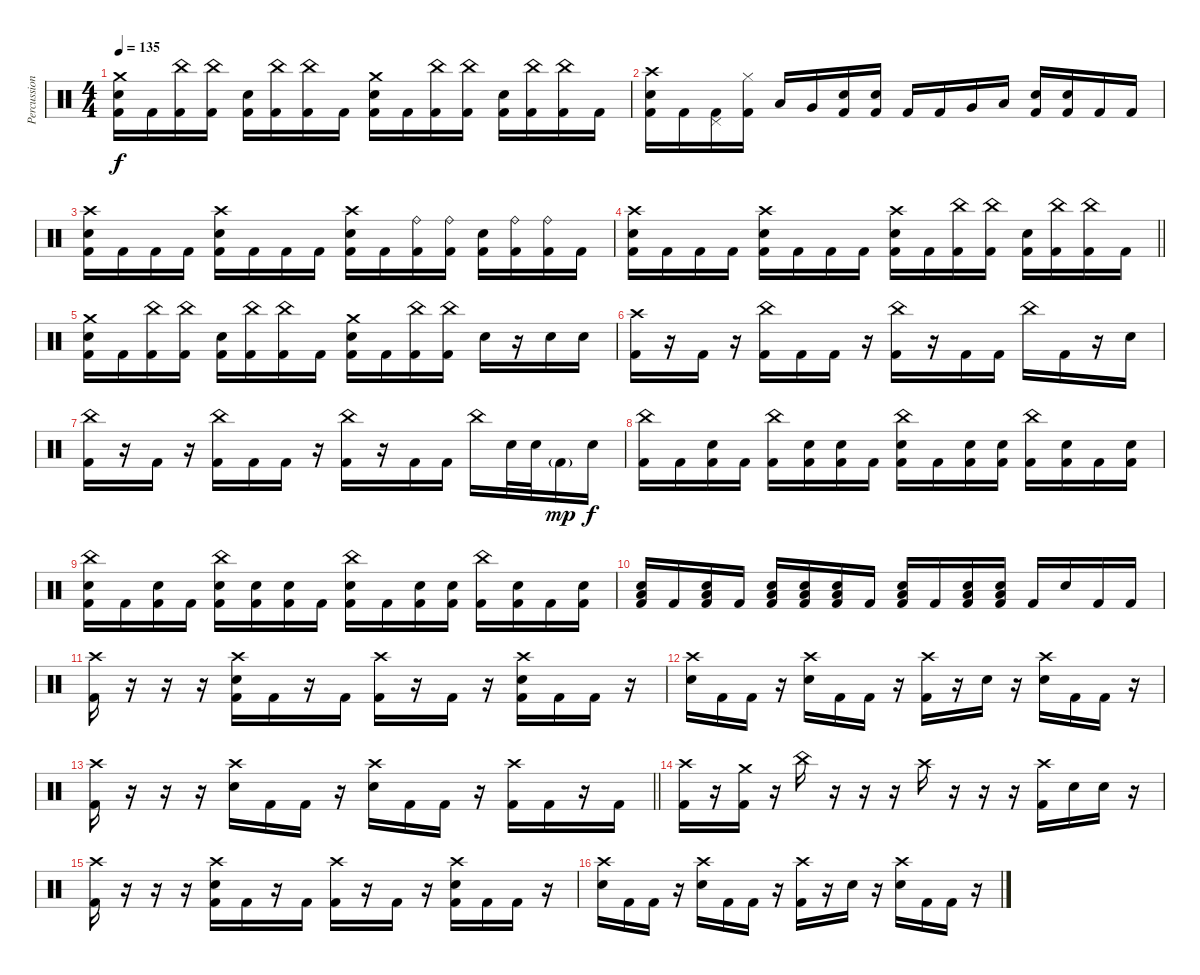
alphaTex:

\track ("Percussion" "Percussion") {instrument percussion}
\staff {score}
\articulation defaults
\ts (4 4)
\tempo 135
\clef neutral
\ks c
("Kick (hit) 2" "Electric Snare (hit)" "Crash medium (hit)").16{dy f} "Kick (hit) 2".16 ("Kick (hit) 2" "China (hit)").16 ("Kick (hit) 2" "China (hit)").16 ("Kick (hit) 2" "Electric Snare (hit)").16 ("Kick (hit) 2" "China (hit)").16 ("Kick (hit) 2" "China (hit)").16 "Kick (hit) 2".16 ("Kick (hit) 2" "Electric Snare (hit)" "Crash medium (hit)").16 "Kick (hit) 2".16 ("Kick (hit) 2" "China (hit)").16 ("Kick (hit) 2" "China (hit)").16 ("Kick (hit) 2" "Electric Snare (hit)").16 ("Kick (hit) 2" "China (hit)").16 ("Kick (hit) 2" "China (hit)").16 "Kick (hit) 2".16 |
("Kick (hit) 2" "Electric Snare (hit)" "Crash high (hit)").16 "Kick (hit) 2".16 ("Kick (hit) 2" "Pedal Hi-Hat (hit)").16 ("Kick (hit) 2" "Hi-Hat (closed)").16 "Low Tom (hit)".16 "Very Low Tom (hit)".16 ("Kick (hit) 2" "Electric Snare (hit)").16 ("Kick (hit) 2" "Electric Snare (hit)").16 "Kick (hit) 2".16 "Kick (hit) 2".16 "Very Low Tom (hit)".16 "Low Floor Tom (hit)".16 ("Kick (hit) 2" "Electric Snare (hit)").16 ("Kick (hit) 2" "Electric Snare (hit)").16 "Kick (hit) 2".16 "Kick (hit) 2".16 |
("Kick (hit) 2" "Electric Snare (hit)" "Crash high (hit)").16 "Kick (hit) 2".16 "Kick (hit) 2".16 "Kick (hit) 2".16 ("Kick (hit) 2" "Electric Snare (hit)" "Crash high (hit)").16 "Kick (hit) 2".16 "Kick (hit) 2".16 "Kick (hit) 2".16 ("Kick (hit) 2" "Electric Snare (hit)" "Crash high (hit)").16 "Kick (hit) 2".16 ("Kick (hit) 2" "Ride (bell)").16 ("Kick (hit) 2" "Ride (bell)").16 ("Kick (hit) 2" "Electric Snare (hit)").16 ("Kick (hit) 2" "Ride (bell)").16 ("Kick (hit) 2" "Ride (bell)").16 "Kick (hit) 2".16 |
\barLineRight lightlight
("Kick (hit) 2" "Electric Snare (hit)" "Crash high (hit)").16 "Kick (hit) 2".16 "Kick (hit) 2".16 "Kick (hit) 2".16 ("Kick (hit) 2" "Electric Snare (hit)" "Crash high (hit)").16 "Kick (hit) 2".16 "Kick (hit) 2".16 "Kick (hit) 2".16 ("Kick (hit) 2" "Electric Snare (hit)" "Crash high (hit)").16 "Kick (hit) 2".16 ("Kick (hit) 2" "China (hit)").16 ("Kick (hit) 2" "China (hit)").16 ("Kick (hit) 2" "Electric Snare (hit)").16 ("Kick (hit) 2" "China (hit)").16 ("Kick (hit) 2" "China (hit)").16 "Kick (hit) 2".16 |
("Kick (hit) 2" "Electric Snare (hit)" "Crash medium (hit)").16 "Kick (hit) 2".16 ("Kick (hit) 2" "China (hit)").16 ("Kick (hit) 2" "China (hit)").16 ("Kick (hit) 2" "Electric Snare (hit)").16 ("Kick (hit) 2" "China (hit)").16 ("Kick (hit) 2" "China (hit)").16 "Kick (hit) 2".16 ("Kick (hit) 2" "Electric Snare (hit)" "Crash medium (hit)").16 "Kick (hit) 2".16 ("Kick (hit) 2" "China (hit)").16 ("Kick (hit) 2" "China (hit)").16 "Electric Snare (hit)".16 r.16 "Electric Snare (hit)".16 "Electric Snare (hit)".16 |
("Kick (hit) 2" "Crash high (hit)").16 r.16 "Kick (hit) 2".16 r.16 ("Kick (hit) 2" "China (hit)").16 "Kick (hit) 2".16 "Kick (hit) 2".16 r.16 ("Kick (hit) 2" "China (hit)").16 r.16 "Kick (hit) 2".16 "Kick (hit) 2".16 "China (hit)".16 "Kick (hit) 2".16 r.16 "Electric Snare (hit)".16 |
("Kick (hit) 2" "China (hit)").16 r.16 "Kick (hit) 2".16 r.16 ("Kick (hit) 2" "China (hit)").16 "Kick (hit) 2".16 "Kick (hit) 2".16 r.16 ("Kick (hit) 2" "China (hit)").16 r.16 "Kick (hit) 2".16 "Kick (hit) 2".16 "China (hit)".16 "Electric Snare (hit)".32 "Electric Snare (hit)".32 "Kick (hit) 2"{g}.16{dy mp} "Electric Snare (hit)".16{dy f} |
("Kick (hit) 2" "China (hit)").16 "Kick (hit) 2".16 ("Kick (hit) 2" "Electric Snare (hit)").16 "Kick (hit) 2".16 ("Kick (hit) 2" "China (hit)").16 ("Kick (hit) 2" "Electric Snare (hit)").16 ("Kick (hit) 2" "Electric Snare (hit)").16 "Kick (hit) 2".16 ("Kick (hit) 2" "Electric Snare (hit)" "China (hit)").16 "Kick (hit) 2".16 ("Kick (hit) 2" "Electric Snare (hit)").16 ("Kick (hit) 2" "Electric Snare (hit)").16 ("Kick (hit) 2" "China (hit)").16 ("Kick (hit) 2" "Electric Snare (hit)").16 "Kick (hit) 2".16 ("Kick (hit) 2" "Electric Snare (hit)").16 |
("Kick (hit) 2" "Electric Snare (hit)" "China (hit)").16 "Kick (hit) 2".16 ("Kick (hit) 2" "Electric Snare (hit)").16 "Kick (hit) 2".16 ("Kick (hit) 2" "Electric Snare (hit)" "China (hit)").16 ("Kick (hit) 2" "Electric Snare (hit)").16 ("Kick (hit) 2" "Electric Snare (hit)").16 "Kick (hit) 2".16 ("Kick (hit) 2" "Electric Snare (hit)" "China (hit)").16 "Kick (hit) 2".16 ("Kick (hit) 2" "Electric Snare (hit)").16 ("Kick (hit) 2" "Electric Snare (hit)").16 ("Kick (hit) 2" "China (hit)").16 ("Kick (hit) 2" "Electric Snare (hit)").16 "Kick (hit) 2".16 ("Kick (hit) 2" "Electric Snare (hit)").16 |
("Kick (hit) 2" "Electric Snare (hit)" "Low Floor Tom (hit)").16 "Kick (hit) 2".16 ("Kick (hit) 2" "Electric Snare (hit)" "Low Floor Tom (hit)").16 "Kick (hit) 2".16 ("Kick (hit) 2" "Electric Snare (hit)" "Low Floor Tom (hit)").16 ("Kick (hit) 2" "Electric Snare (hit)" "Low Floor Tom (hit)").16 ("Kick (hit) 2" "Electric Snare (hit)" "Low Floor Tom (hit)").16 "Kick (hit) 2".16 ("Kick (hit) 2" "Electric Snare (hit)" "Low Floor Tom (hit)").16 "Kick (hit) 2".16 ("Kick (hit) 2" "Electric Snare (hit)" "Low Floor Tom (hit)").16 ("Kick (hit) 2" "Electric Snare (hit)" "Low Floor Tom (hit)").16 "Kick (hit) 2".16 "Electric Snare (hit)".16 "Kick (hit) 2".16 "Kick (hit) 2".16 |
("Kick (hit) 2" "Crash high (hit)").16 r.16 r.16 r.16 ("Kick (hit) 2" "Electric Snare (hit)" "Crash high (hit)").16 "Kick (hit) 2".16 r.16 "Kick (hit) 2".16 ("Kick (hit) 2" "Crash high (hit)").16 r.16 "Kick (hit) 2".16 r.16 ("Kick (hit) 2" "Electric Snare (hit)" "Crash high (hit)").16 "Kick (hit) 2".16 "Kick (hit) 2".16 r.16 |
("Electric Snare (hit)" "Crash high (hit)").16 "Kick (hit) 2".16 "Kick (hit) 2".16 r.16 ("Electric Snare (hit)" "Crash high (hit)").16 "Kick (hit) 2".16 "Kick (hit) 2".16 r.16 ("Kick (hit) 2" "Crash high (hit)").16 r.16 "Electric Snare (hit)".16 r.16 ("Electric Snare (hit)" "Crash high (hit)").16 "Kick (hit) 2".16 "Kick (hit) 2".16 r.16 |
\barLineRight lightlight
("Kick (hit) 2" "Crash high (hit)").16 r.16 r.16 r.16 ("Electric Snare (hit)" "Crash high (hit)").16 "Kick (hit) 2".16 "Kick (hit) 2".16 r.16 ("Electric Snare (hit)" "Crash high (hit)").16 "Kick (hit) 2".16 "Kick (hit) 2".16 r.16 ("Kick (hit) 2" "Crash high (hit)").16 "Kick (hit) 2".16 r.16 "Kick (hit) 2".16 |
("Kick (hit) 2" "Crash high (hit)").16 r.16 ("Kick (hit) 2" "Crash medium (hit)").16 r.16 "China (hit)".16 r.16 r.16 r.16 "Crash high (hit)".16 r.16 r.16 r.16 ("Kick (hit) 2" "Crash high (hit)").16 "Electric Snare (hit)".16 "Electric Snare (hit)".16 r.16 |
("Kick (hit) 2" "Crash high (hit)").16 r.16 r.16 r.16 ("Kick (hit) 2" "Electric Snare (hit)" "Crash high (hit)").16 "Kick (hit) 2".16 r.16 "Kick (hit) 2".16 ("Kick (hit) 2" "Crash high (hit)").16 r.16 "Kick (hit) 2".16 r.16 ("Kick (hit) 2" "Electric Snare (hit)" "Crash high (hit)").16 "Kick (hit) 2".16 "Kick (hit) 2".16 r.16 |
("Electric Snare (hit)" "Crash high (hit)").16 "Kick (hit) 2".16 "Kick (hit) 2".16 r.16 ("Electric Snare (hit)" "Crash high (hit)").16 "Kick (hit) 2".16 "Kick (hit) 2".16 r.16 ("Kick (hit) 2" "Crash high (hit)").16 r.16 "Electric Snare (hit)".16 r.16 ("Electric Snare (hit)" "Crash high (hit)").16 "Kick (hit) 2".16 "Kick (hit) 2".16 r.16
